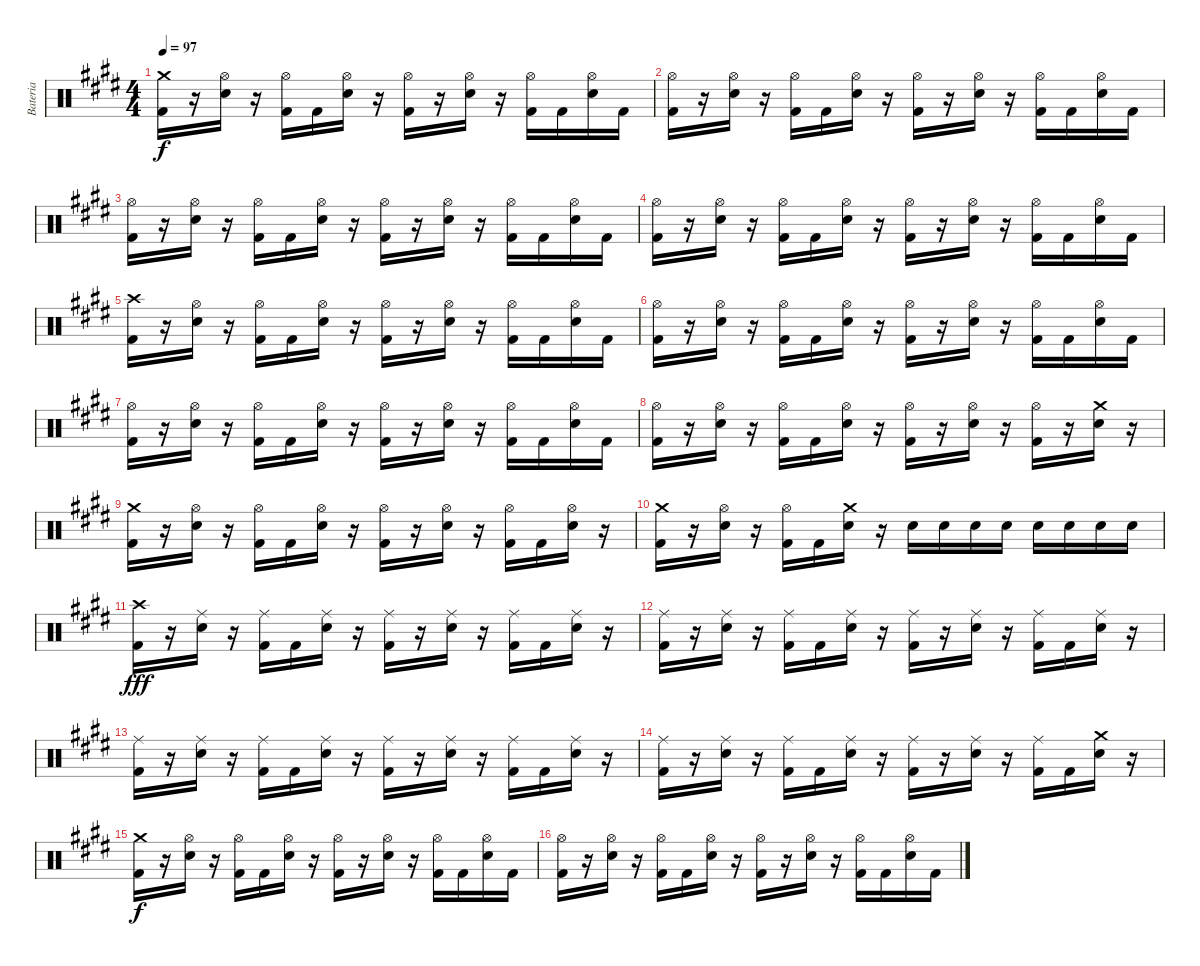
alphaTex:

\track ("Bateria" "Bateria") {instrument percussion}
\staff {score}
\articulation defaults
\ts (4 4)
\tempo 97
\clef neutral
\ks e
("Crash medium (hit)" "Kick (hit) 2").16{dy f} r.16 ("Hi-Hat (open)" "Electric Snare (hit)").16 r.16 ("Hi-Hat (open)" "Kick (hit) 2").16 "Kick (hit) 2".16 ("Hi-Hat (open)" "Electric Snare (hit)").16 r.16 ("Hi-Hat (open)" "Kick (hit) 2").16 r.16 ("Hi-Hat (open)" "Electric Snare (hit)").16 r.16 ("Hi-Hat (open)" "Kick (hit) 2").16 "Kick (hit) 2".16 ("Hi-Hat (open)" "Electric Snare (hit)").16 "Kick (hit) 2".16 |
("Hi-Hat (open)" "Kick (hit) 2").16 r.16 ("Hi-Hat (open)" "Electric Snare (hit)").16 r.16 ("Hi-Hat (open)" "Kick (hit) 2").16 "Kick (hit) 2".16 ("Hi-Hat (open)" "Electric Snare (hit)").16 r.16 ("Hi-Hat (open)" "Kick (hit) 2").16 r.16 ("Hi-Hat (open)" "Electric Snare (hit)").16 r.16 ("Hi-Hat (open)" "Kick (hit) 2").16 "Kick (hit) 2".16 ("Hi-Hat (open)" "Electric Snare (hit)").16 "Kick (hit) 2".16 |
("Hi-Hat (open)" "Kick (hit) 2").16 r.16 ("Hi-Hat (open)" "Electric Snare (hit)").16 r.16 ("Hi-Hat (open)" "Kick (hit) 2").16 "Kick (hit) 2".16 ("Hi-Hat (open)" "Electric Snare (hit)").16 r.16 ("Hi-Hat (open)" "Kick (hit) 2").16 r.16 ("Hi-Hat (open)" "Electric Snare (hit)").16 r.16 ("Hi-Hat (open)" "Kick (hit) 2").16 "Kick (hit) 2".16 ("Hi-Hat (open)" "Electric Snare (hit)").16 "Kick (hit) 2".16 |
("Hi-Hat (open)" "Kick (hit) 2").16 r.16 ("Hi-Hat (open)" "Electric Snare (hit)").16 r.16 ("Hi-Hat (open)" "Kick (hit) 2").16 "Kick (hit) 2".16 ("Hi-Hat (open)" "Electric Snare (hit)").16 r.16 ("Hi-Hat (open)" "Kick (hit) 2").16 r.16 ("Hi-Hat (open)" "Electric Snare (hit)").16 r.16 ("Hi-Hat (open)" "Kick (hit) 2").16 "Kick (hit) 2".16 ("Hi-Hat (open)" "Electric Snare (hit)").16 "Kick (hit) 2".16 |
("Crash high (hit)" "Kick (hit) 2").16 r.16 ("Hi-Hat (open)" "Electric Snare (hit)").16 r.16 ("Hi-Hat (open)" "Kick (hit) 2").16 "Kick (hit) 2".16 ("Hi-Hat (open)" "Electric Snare (hit)").16 r.16 ("Hi-Hat (open)" "Kick (hit) 2").16 r.16 ("Hi-Hat (open)" "Electric Snare (hit)").16 r.16 ("Hi-Hat (open)" "Kick (hit) 2").16 "Kick (hit) 2".16 ("Hi-Hat (open)" "Electric Snare (hit)").16 "Kick (hit) 2".16 |
("Hi-Hat (open)" "Kick (hit) 2").16 r.16 ("Hi-Hat (open)" "Electric Snare (hit)").16 r.16 ("Hi-Hat (open)" "Kick (hit) 2").16 "Kick (hit) 2".16 ("Hi-Hat (open)" "Electric Snare (hit)").16 r.16 ("Hi-Hat (open)" "Kick (hit) 2").16 r.16 ("Hi-Hat (open)" "Electric Snare (hit)").16 r.16 ("Hi-Hat (open)" "Kick (hit) 2").16 "Kick (hit) 2".16 ("Hi-Hat (open)" "Electric Snare (hit)").16 "Kick (hit) 2".16 |
("Hi-Hat (open)" "Kick (hit) 2").16 r.16 ("Hi-Hat (open)" "Electric Snare (hit)").16 r.16 ("Hi-Hat (open)" "Kick (hit) 2").16 "Kick (hit) 2".16 ("Hi-Hat (open)" "Electric Snare (hit)").16 r.16 ("Hi-Hat (open)" "Kick (hit) 2").16 r.16 ("Hi-Hat (open)" "Electric Snare (hit)").16 r.16 ("Hi-Hat (open)" "Kick (hit) 2").16 "Kick (hit) 2".16 ("Hi-Hat (open)" "Electric Snare (hit)").16 "Kick (hit) 2".16 |
("Hi-Hat (open)" "Kick (hit) 2").16 r.16 ("Hi-Hat (open)" "Electric Snare (hit)").16 r.16 ("Hi-Hat (open)" "Kick (hit) 2").16 "Kick (hit) 2".16 ("Hi-Hat (open)" "Electric Snare (hit)").16 r.16 ("Hi-Hat (open)" "Kick (hit) 2").16 r.16 ("Hi-Hat (open)" "Electric Snare (hit)").16 r.16 ("Hi-Hat (open)" "Kick (hit) 2").16 r.16 ("Crash medium (hit)" "Electric Snare (hit)").16 r.16 |
("Crash medium (hit)" "Kick (hit) 2").16 r.16 ("Hi-Hat (open)" "Electric Snare (hit)").16 r.16 ("Hi-Hat (open)" "Kick (hit) 2").16 "Kick (hit) 2".16 ("Hi-Hat (open)" "Electric Snare (hit)").16 r.16 ("Hi-Hat (open)" "Kick (hit) 2").16 r.16 ("Hi-Hat (open)" "Electric Snare (hit)").16 r.16 ("Hi-Hat (open)" "Kick (hit) 2").16 "Kick (hit) 2".16 ("Hi-Hat (open)" "Electric Snare (hit)").16 r.16 |
("Crash medium (hit)" "Kick (hit) 2").16 r.16 ("Hi-Hat (open)" "Electric Snare (hit)").16 r.16 ("Hi-Hat (open)" "Kick (hit) 2").16 "Kick (hit) 2".16 ("Crash medium (hit)" "Electric Snare (hit)").16 r.16 "Electric Snare (hit)".16 "Electric Snare (hit)".16 "Electric Snare (hit)".16 "Electric Snare (hit)".16 "Electric Snare (hit)".16 "Electric Snare (hit)".16 "Electric Snare (hit)".16 "Electric Snare (hit)".16 |
("Crash high (hit)" "Kick (hit) 2").16{dy fff} r.16 ("Ride (middle)" "Electric Snare (hit)").16 r.16 ("Ride (middle)" "Kick (hit) 2").16 "Kick (hit) 2".16 ("Ride (middle)" "Electric Snare (hit)").16 r.16 ("Ride (middle)" "Kick (hit) 2").16 r.16 ("Ride (middle)" "Electric Snare (hit)").16 r.16 ("Ride (middle)" "Kick (hit) 2").16 "Kick (hit) 2".16 ("Ride (middle)" "Electric Snare (hit)").16 r.16 |
("Ride (middle)" "Kick (hit) 2").16 r.16 ("Ride (middle)" "Electric Snare (hit)").16 r.16 ("Ride (middle)" "Kick (hit) 2").16 "Kick (hit) 2".16 ("Ride (middle)" "Electric Snare (hit)").16 r.16 ("Ride (middle)" "Kick (hit) 2").16 r.16 ("Ride (middle)" "Electric Snare (hit)").16 r.16 ("Ride (middle)" "Kick (hit) 2").16 "Kick (hit) 2".16 ("Ride (middle)" "Electric Snare (hit)").16 r.16 |
("Ride (middle)" "Kick (hit) 2").16 r.16 ("Ride (middle)" "Electric Snare (hit)").16 r.16 ("Ride (middle)" "Kick (hit) 2").16 "Kick (hit) 2".16 ("Ride (middle)" "Electric Snare (hit)").16 r.16 ("Ride (middle)" "Kick (hit) 2").16 r.16 ("Ride (middle)" "Electric Snare (hit)").16 r.16 ("Ride (middle)" "Kick (hit) 2").16 "Kick (hit) 2".16 ("Ride (middle)" "Electric Snare (hit)").16 r.16 |
("Ride (middle)" "Kick (hit) 2").16 r.16 ("Ride (middle)" "Electric Snare (hit)").16 r.16 ("Ride (middle)" "Kick (hit) 2").16 "Kick (hit) 2".16 ("Ride (middle)" "Electric Snare (hit)").16 r.16 ("Ride (middle)" "Kick (hit) 2").16 r.16 ("Ride (middle)" "Electric Snare (hit)").16 r.16 ("Ride (middle)" "Kick (hit) 2").16 "Kick (hit) 2".16 ("Crash medium (hit)" "Electric Snare (hit)").16 r.16 |
("Crash medium (hit)" "Kick (hit) 2").16{dy f} r.16 ("Hi-Hat (open)" "Electric Snare (hit)").16 r.16 ("Hi-Hat (open)" "Kick (hit) 2").16 "Kick (hit) 2".16 ("Hi-Hat (open)" "Electric Snare (hit)").16 r.16 ("Hi-Hat (open)" "Kick (hit) 2").16 r.16 ("Hi-Hat (open)" "Electric Snare (hit)").16 r.16 ("Hi-Hat (open)" "Kick (hit) 2").16 "Kick (hit) 2".16 ("Hi-Hat (open)" "Electric Snare (hit)").16 "Kick (hit) 2".16 |
("Hi-Hat (open)" "Kick (hit) 2").16 r.16 ("Hi-Hat (open)" "Electric Snare (hit)").16 r.16 ("Hi-Hat (open)" "Kick (hit) 2").16 "Kick (hit) 2".16 ("Hi-Hat (open)" "Electric Snare (hit)").16 r.16 ("Hi-Hat (open)" "Kick (hit) 2").16 r.16 ("Hi-Hat (open)" "Electric Snare (hit)").16 r.16 ("Hi-Hat (open)" "Kick (hit) 2").16 "Kick (hit) 2".16 ("Hi-Hat (open)" "Electric Snare (hit)").16 "Kick (hit) 2".16
